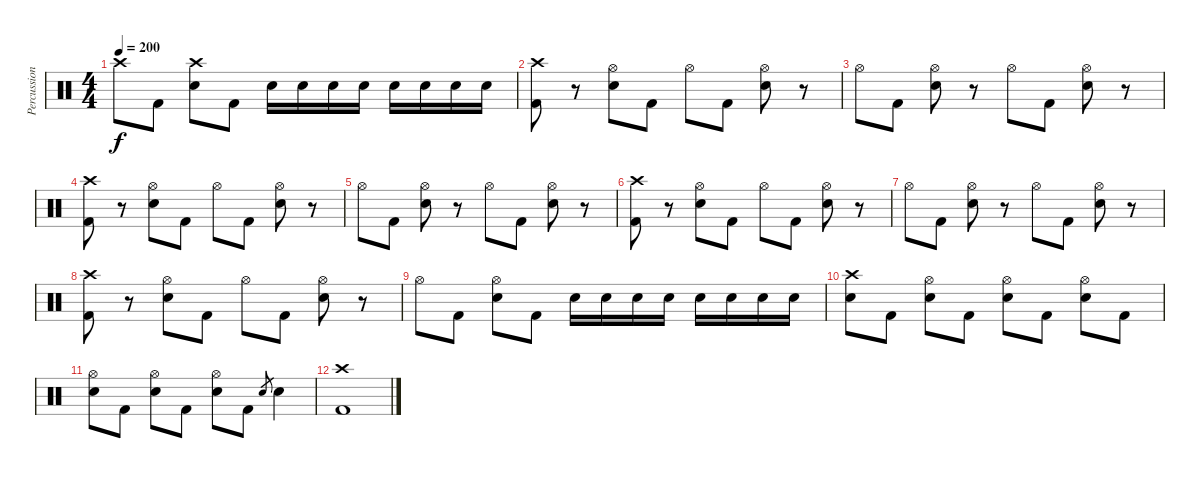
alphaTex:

\track ("Percussion" "Percussion") {instrument percussion}
\staff {score}
\articulation defaults
\ts (4 4)
\tempo 200
\clef neutral
\ks c "Crash high (hit)".8{dy f} "Kick (hit) 2".8
("Crash high (hit)" "Electric Snare (hit)").8 "Kick (hit) 2".8 "Electric Snare (hit)".16 "Electric Snare (hit)".16 "Electric Snare (hit)".16 "Electric Snare (hit)".16 "Electric Snare (hit)".16 "Electric Snare (hit)".16 "Electric Snare (hit)".16 "Electric Snare (hit)".16 |
("Crash high (hit)" "Kick (hit) 2").8 r.8 ("Hi-Hat (open)" "Electric Snare (hit)").8 "Kick (hit) 2".8 "Hi-Hat (open)".8 "Kick (hit) 2".8 ("Hi-Hat (open)" "Electric Snare (hit)").8 r.8 |
"Hi-Hat (open)".8 "Kick (hit) 2".8 ("Hi-Hat (open)" "Electric Snare (hit)").8 r.8 "Hi-Hat (open)".8 "Kick (hit) 2".8 ("Hi-Hat (open)" "Electric Snare (hit)").8 r.8 |
("Crash high (hit)" "Kick (hit) 2").8 r.8 ("Hi-Hat (open)" "Electric Snare (hit)").8 "Kick (hit) 2".8 "Hi-Hat (open)".8 "Kick (hit) 2".8 ("Hi-Hat (open)" "Electric Snare (hit)").8 r.8 |
"Hi-Hat (open)".8 "Kick (hit) 2".8 ("Hi-Hat (open)" "Electric Snare (hit)").8 r.8 "Hi-Hat (open)".8 "Kick (hit) 2".8 ("Hi-Hat (open)" "Electric Snare (hit)").8 r.8 |
("Crash high (hit)" "Kick (hit) 2").8 r.8 ("Hi-Hat (open)" "Electric Snare (hit)").8 "Kick (hit) 2".8 "Hi-Hat (open)".8 "Kick (hit) 2".8 ("Hi-Hat (open)" "Electric Snare (hit)").8 r.8 |
"Hi-Hat (open)".8 "Kick (hit) 2".8 ("Hi-Hat (open)" "Electric Snare (hit)").8 r.8 "Hi-Hat (open)".8 "Kick (hit) 2".8 ("Hi-Hat (open)" "Electric Snare (hit)").8 r.8 |
("Crash high (hit)" "Kick (hit) 2").8 r.8 ("Hi-Hat (open)" "Electric Snare (hit)").8 "Kick (hit) 2".8 "Hi-Hat (open)".8 "Kick (hit) 2".8 ("Hi-Hat (open)" "Electric Snare (hit)").8 r.8 |
"Hi-Hat (open)".8 "Kick (hit) 2".8 ("Hi-Hat (open)" "Electric Snare (hit)").8 "Kick (hit) 2".8 "Electric Snare (hit)".16 "Electric Snare (hit)".16 "Electric Snare (hit)".16 "Electric Snare (hit)".16 "Electric Snare (hit)".16 "Electric Snare (hit)".16 "Electric Snare (hit)".16 "Electric Snare (hit)".16 |
("Crash high (hit)" "Electric Snare (hit)").8 "Kick (hit) 2".8 ("Hi-Hat (open)" "Electric Snare (hit)").8 "Kick (hit) 2".8 ("Hi-Hat (open)" "Electric Snare (hit)").8 "Kick (hit) 2".8 ("Hi-Hat (open)" "Electric Snare (hit)").8 "Kick (hit) 2".8 |
("Hi-Hat (open)" "Electric Snare (hit)").8 "Kick (hit) 2".8 ("Hi-Hat (open)" "Electric Snare (hit)").8 "Kick (hit) 2".8 ("Hi-Hat (open)" "Electric Snare (hit)").8 "Kick (hit) 2".8 "Electric Snare (hit)".8{gr} "Electric Snare (hit)".4 |
("Crash high (hit)" "Kick (hit) 2").1
